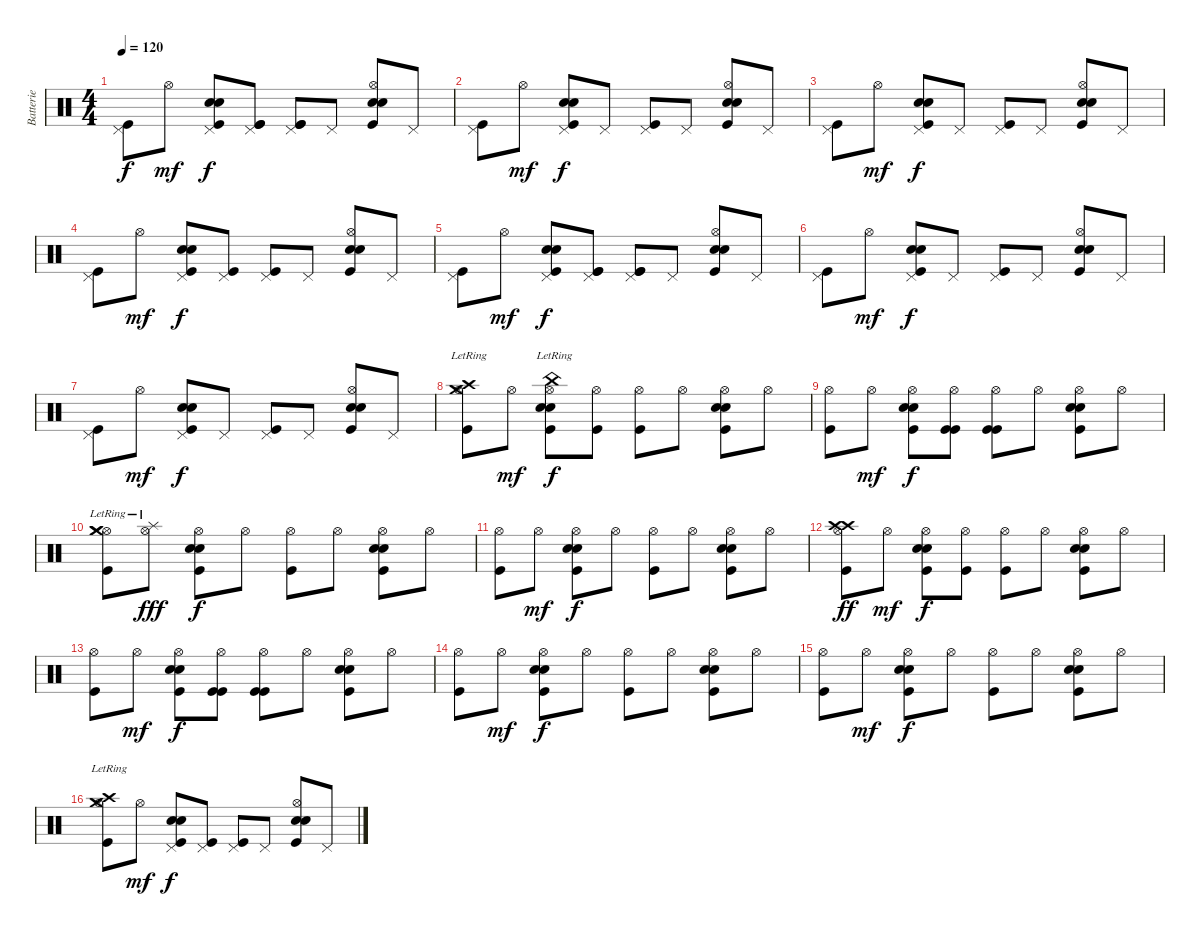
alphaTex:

\track ("Batterie" "Batterie") {instrument percussion}
\staff {score}
\articulation defaults
\ts (4 4)
\tempo 120
\clef neutral
\ks c
("Pedal Hi-Hat (hit)" "Kick (hit)").8{dy f} "Hi-Hat (open)".8{dy mf} ("Pedal Hi-Hat (hit)" "Kick (hit)" "Electric Snare (hit)" "Snare (hit) 2").8{dy f} ("Pedal Hi-Hat (hit)" "Kick (hit)" "Kick (hit)").8 ("Pedal Hi-Hat (hit)" "Kick (hit)" "Kick (hit)").8 "Pedal Hi-Hat (hit)".8 ("Hi-Hat (open)" "Kick (hit)" "Electric Snare (hit)" "Snare (hit) 2").8 "Pedal Hi-Hat (hit)".8 |
("Pedal Hi-Hat (hit)" "Kick (hit)").8 "Hi-Hat (open)".8{dy mf} ("Pedal Hi-Hat (hit)" "Kick (hit)" "Electric Snare (hit)" "Snare (hit) 2").8{dy f} "Pedal Hi-Hat (hit)".8 ("Pedal Hi-Hat (hit)" "Kick (hit)").8 "Pedal Hi-Hat (hit)".8 ("Hi-Hat (open)" "Kick (hit)" "Electric Snare (hit)" "Snare (hit) 2").8 "Pedal Hi-Hat (hit)".8 |
("Pedal Hi-Hat (hit)" "Kick (hit)").8 "Hi-Hat (open)".8{dy mf} ("Pedal Hi-Hat (hit)" "Kick (hit)" "Electric Snare (hit)" "Snare (hit) 2").8{dy f} "Pedal Hi-Hat (hit)".8 ("Pedal Hi-Hat (hit)" "Kick (hit)").8 "Pedal Hi-Hat (hit)".8 ("Hi-Hat (open)" "Kick (hit)" "Electric Snare (hit)" "Snare (hit) 2").8 "Pedal Hi-Hat (hit)".8 |
("Pedal Hi-Hat (hit)" "Kick (hit)").8 "Hi-Hat (open)".8{dy mf} ("Pedal Hi-Hat (hit)" "Kick (hit)" "Electric Snare (hit)" "Snare (hit) 2").8{dy f} ("Pedal Hi-Hat (hit)" "Kick (hit)").8 ("Pedal Hi-Hat (hit)" "Kick (hit)").8 "Pedal Hi-Hat (hit)".8 ("Hi-Hat (open)" "Kick (hit)" "Electric Snare (hit)" "Snare (hit) 2").8 "Pedal Hi-Hat (hit)".8 |
("Pedal Hi-Hat (hit)" "Kick (hit)").8 "Hi-Hat (open)".8{dy mf} ("Pedal Hi-Hat (hit)" "Kick (hit)" "Electric Snare (hit)" "Snare (hit) 2").8{dy f} ("Pedal Hi-Hat (hit)" "Kick (hit)" "Kick (hit)").8 ("Pedal Hi-Hat (hit)" "Kick (hit)" "Kick (hit)").8 "Pedal Hi-Hat (hit)".8 ("Hi-Hat (open)" "Kick (hit)" "Electric Snare (hit)" "Snare (hit) 2").8 "Pedal Hi-Hat (hit)".8 |
("Pedal Hi-Hat (hit)" "Kick (hit)").8 "Hi-Hat (open)".8{dy mf} ("Pedal Hi-Hat (hit)" "Kick (hit)" "Electric Snare (hit)" "Snare (hit) 2").8{dy f} "Pedal Hi-Hat (hit)".8 ("Pedal Hi-Hat (hit)" "Kick (hit)").8 "Pedal Hi-Hat (hit)".8 ("Hi-Hat (open)" "Kick (hit)" "Electric Snare (hit)" "Snare (hit) 2").8 "Pedal Hi-Hat (hit)".8 |
("Pedal Hi-Hat (hit)" "Kick (hit)").8 "Hi-Hat (open)".8{dy mf} ("Pedal Hi-Hat (hit)" "Kick (hit)" "Electric Snare (hit)" "Snare (hit) 2").8{dy f} "Pedal Hi-Hat (hit)".8 ("Pedal Hi-Hat (hit)" "Kick (hit)").8 "Pedal Hi-Hat (hit)".8 ("Hi-Hat (open)" "Kick (hit)" "Electric Snare (hit)" "Snare (hit) 2").8 "Pedal Hi-Hat (hit)".8 |
("Hi-Hat (open)" "Kick (hit)" "Crash high (hit)"{lr} "Crash medium (hit)"{lr}).8 "Hi-Hat (open)".8{dy mf} ("Hi-Hat (open)" "Kick (hit)" "Electric Snare (hit)" "Snare (hit) 2" "China (hit)"{lr}).8{dy f} ("Hi-Hat (open)" "Kick (hit)").8 ("Hi-Hat (open)" "Kick (hit)").8 "Hi-Hat (open)".8 ("Hi-Hat (open)" "Kick (hit)" "Electric Snare (hit)" "Snare (hit) 2").8 "Hi-Hat (open)".8 |
("Hi-Hat (open)" "Kick (hit)").8 "Hi-Hat (open)".8{dy mf} ("Hi-Hat (open)" "Kick (hit)" "Electric Snare (hit)" "Snare (hit) 2").8{dy f} ("Hi-Hat (open)" "Kick (hit)" "Kick (hit)").8 ("Hi-Hat (open)" "Kick (hit)" "Kick (hit)").8 "Hi-Hat (open)".8 ("Hi-Hat (open)" "Kick (hit)" "Electric Snare (hit)" "Snare (hit) 2").8 "Hi-Hat (open)".8 |
("Hi-Hat (open)" "Kick (hit)" "Crash medium (hit)"{lr} "Crash medium (hit)"{lr}).8 ("Hi-Hat (open)" "Splash (hit)"{lr}).8{dy fff} ("Hi-Hat (open)" "Kick (hit)" "Electric Snare (hit)" "Snare (hit) 2").8{dy f} "Hi-Hat (open)".8 ("Hi-Hat (open)" "Kick (hit)").8 "Hi-Hat (open)".8 ("Hi-Hat (open)" "Kick (hit)" "Electric Snare (hit)" "Snare (hit) 2").8 "Hi-Hat (open)".8 |
("Hi-Hat (open)" "Kick (hit)").8 "Hi-Hat (open)".8{dy mf} ("Hi-Hat (open)" "Kick (hit)" "Electric Snare (hit)" "Snare (hit) 2").8{dy f} "Hi-Hat (open)".8 ("Hi-Hat (open)" "Kick (hit)").8 "Hi-Hat (open)".8 ("Hi-Hat (open)" "Kick (hit)" "Electric Snare (hit)" "Snare (hit) 2").8 "Hi-Hat (open)".8 |
("Hi-Hat (open)" "Kick (hit)" "Crash high (hit)" "Crash high (hit)").8{dy ff} "Hi-Hat (open)".8{dy mf} ("Hi-Hat (open)" "Kick (hit)" "Electric Snare (hit)" "Snare (hit) 2").8{dy f} ("Hi-Hat (open)" "Kick (hit)").8 ("Hi-Hat (open)" "Kick (hit)").8 "Hi-Hat (open)".8 ("Hi-Hat (open)" "Kick (hit)" "Electric Snare (hit)" "Snare (hit) 2").8 "Hi-Hat (open)".8 |
("Hi-Hat (open)" "Kick (hit)").8 "Hi-Hat (open)".8{dy mf} ("Hi-Hat (open)" "Kick (hit)" "Electric Snare (hit)" "Snare (hit) 2").8{dy f} ("Hi-Hat (open)" "Kick (hit)" "Kick (hit)").8 ("Hi-Hat (open)" "Kick (hit)" "Kick (hit)").8 "Hi-Hat (open)".8 ("Hi-Hat (open)" "Kick (hit)" "Electric Snare (hit)" "Snare (hit) 2").8 "Hi-Hat (open)".8 |
("Hi-Hat (open)" "Kick (hit)").8 "Hi-Hat (open)".8{dy mf} ("Hi-Hat (open)" "Kick (hit)" "Electric Snare (hit)" "Snare (hit) 2").8{dy f} "Hi-Hat (open)".8 ("Hi-Hat (open)" "Kick (hit)").8 "Hi-Hat (open)".8 ("Hi-Hat (open)" "Kick (hit)" "Electric Snare (hit)" "Snare (hit) 2").8 "Hi-Hat (open)".8 |
("Hi-Hat (open)" "Kick (hit)").8 "Hi-Hat (open)".8{dy mf} ("Hi-Hat (open)" "Kick (hit)" "Electric Snare (hit)" "Snare (hit) 2").8{dy f} "Hi-Hat (open)".8 ("Hi-Hat (open)" "Kick (hit)").8 "Hi-Hat (open)".8 ("Hi-Hat (open)" "Kick (hit)" "Electric Snare (hit)" "Snare (hit) 2").8 "Hi-Hat (open)".8 |
("Hi-Hat (open)" "Kick (hit)" "Crash medium (hit)"{lr} "Crash high (hit)"{lr}).8 "Hi-Hat (open)".8{dy mf} ("Pedal Hi-Hat (hit)" "Kick (hit)" "Electric Snare (hit)" "Snare (hit) 2").8{dy f} ("Pedal Hi-Hat (hit)" "Kick (hit)").8 ("Pedal Hi-Hat (hit)" "Kick (hit)").8 "Pedal Hi-Hat (hit)".8 ("Hi-Hat (open)" "Kick (hit)" "Electric Snare (hit)" "Snare (hit) 2").8 "Pedal Hi-Hat (hit)".8
